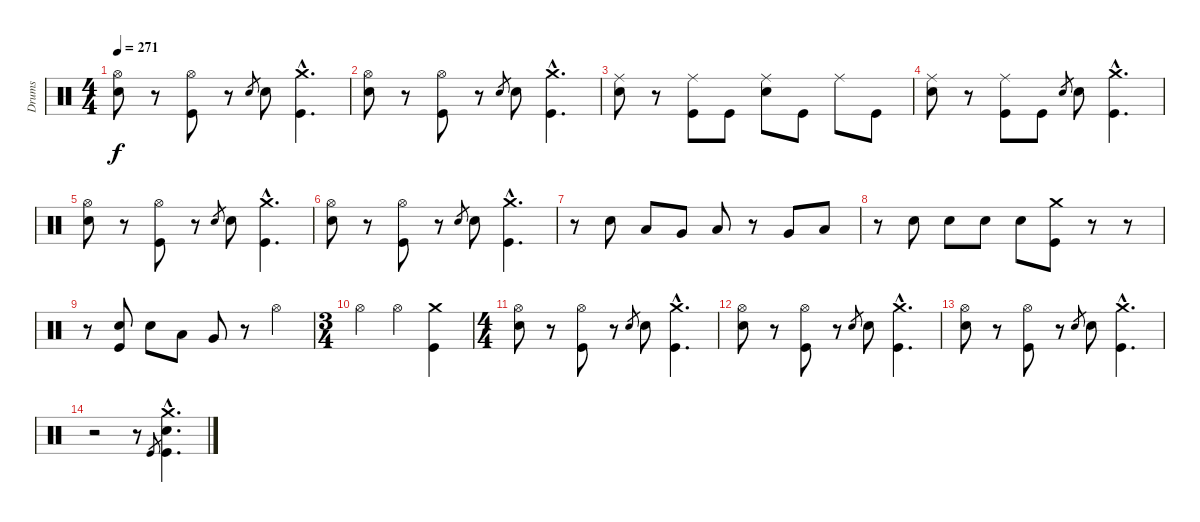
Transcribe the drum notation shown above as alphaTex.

\track ("Drums" "Drums") {instrument percussion}
\staff {score}
\articulation defaults
\ts (4 4)
\tempo 271
\clef neutral
\ks c
("Hi-Hat (open)" "Electric Snare (hit)").8{dy f} r.8 ("Hi-Hat (open)" "Kick (hit)").8 r.8 "Electric Snare (hit)".8{gr} "Electric Snare (hit)".8 ("Crash medium (hit)"{hac} "Kick (hit)"{hac}).4{d} |
("Hi-Hat (open)" "Electric Snare (hit)").8 r.8 ("Hi-Hat (open)" "Kick (hit)").8 r.8 "Electric Snare (hit)".8{gr} "Electric Snare (hit)".8 ("Crash medium (hit)"{hac} "Kick (hit)"{hac}).4{d} |
("Ride (middle)" "Electric Snare (hit)").8 r.8 ("Ride (middle)" "Kick (hit)").8 "Kick (hit)".8 ("Ride (middle)" "Electric Snare (hit)").8 "Kick (hit)".8 "Ride (middle)".8 "Kick (hit)".8 |
("Ride (middle)" "Electric Snare (hit)").8 r.8 ("Ride (middle)" "Kick (hit)").8 "Kick (hit)".8 "Electric Snare (hit)".8{gr} "Electric Snare (hit)".8 ("Crash medium (hit)"{hac} "Kick (hit)"{hac}).4{d} |
("Hi-Hat (open)" "Electric Snare (hit)").8 r.8 ("Hi-Hat (open)" "Kick (hit)").8 r.8 "Electric Snare (hit)".8{gr} "Electric Snare (hit)".8 ("Crash medium (hit)"{hac} "Kick (hit)"{hac}).4{d} |
("Hi-Hat (open)" "Electric Snare (hit)").8 r.8 ("Hi-Hat (open)" "Kick (hit)").8 r.8 "Electric Snare (hit)".8{gr} "Electric Snare (hit)".8 ("Crash medium (hit)"{hac} "Kick (hit)"{hac}).4{d} |
r.8 "Electric Snare (hit)".8 "Low Tom (hit)".8 "Very Low Tom (hit)".8 "Low Floor Tom (hit)".8 r.8 "Very Low Tom (hit)".8 "Low Floor Tom (hit)".8 |
r.8 "Electric Snare (hit)".8 "Electric Snare (hit)".8 "Electric Snare (hit)".8 "Electric Snare (hit)".8 ("Crash medium (hit)" "Kick (hit)").8 r.8 r.8 |
r.8 ("Electric Snare (hit)" "Kick (hit)").8 "Electric Snare (hit)".8 "Low Tom (hit)".8 "Very Low Tom (hit)".8 r.8 "Hi-Hat (open)".4 |
\ts (3 4)
"Hi-Hat (open)".4 "Hi-Hat (open)".4 ("Crash medium (hit)" "Kick (hit)").4 |
\ts (4 4)
("Hi-Hat (open)" "Electric Snare (hit)").8 r.8 ("Hi-Hat (open)" "Kick (hit)").8 r.8 "Electric Snare (hit)".8{gr} "Electric Snare (hit)".8 ("Crash medium (hit)"{hac} "Kick (hit)"{hac}).4{d} |
("Hi-Hat (open)" "Electric Snare (hit)").8 r.8 ("Hi-Hat (open)" "Kick (hit)").8 r.8 "Electric Snare (hit)".8{gr} "Electric Snare (hit)".8 ("Crash medium (hit)"{hac} "Kick (hit)"{hac}).4{d} |
("Hi-Hat (open)" "Electric Snare (hit)").8 r.8 ("Hi-Hat (open)" "Kick (hit)").8 r.8 "Electric Snare (hit)".8{gr} "Electric Snare (hit)".8 ("Crash medium (hit)"{hac} "Kick (hit)"{hac}).4{d} |
r.2 r.8 "Kick (hit)".8{gr} ("Crash medium (hit)"{hac} "Electric Snare (hit)"{hac} "Kick (hit)"{hac}).4{d}
